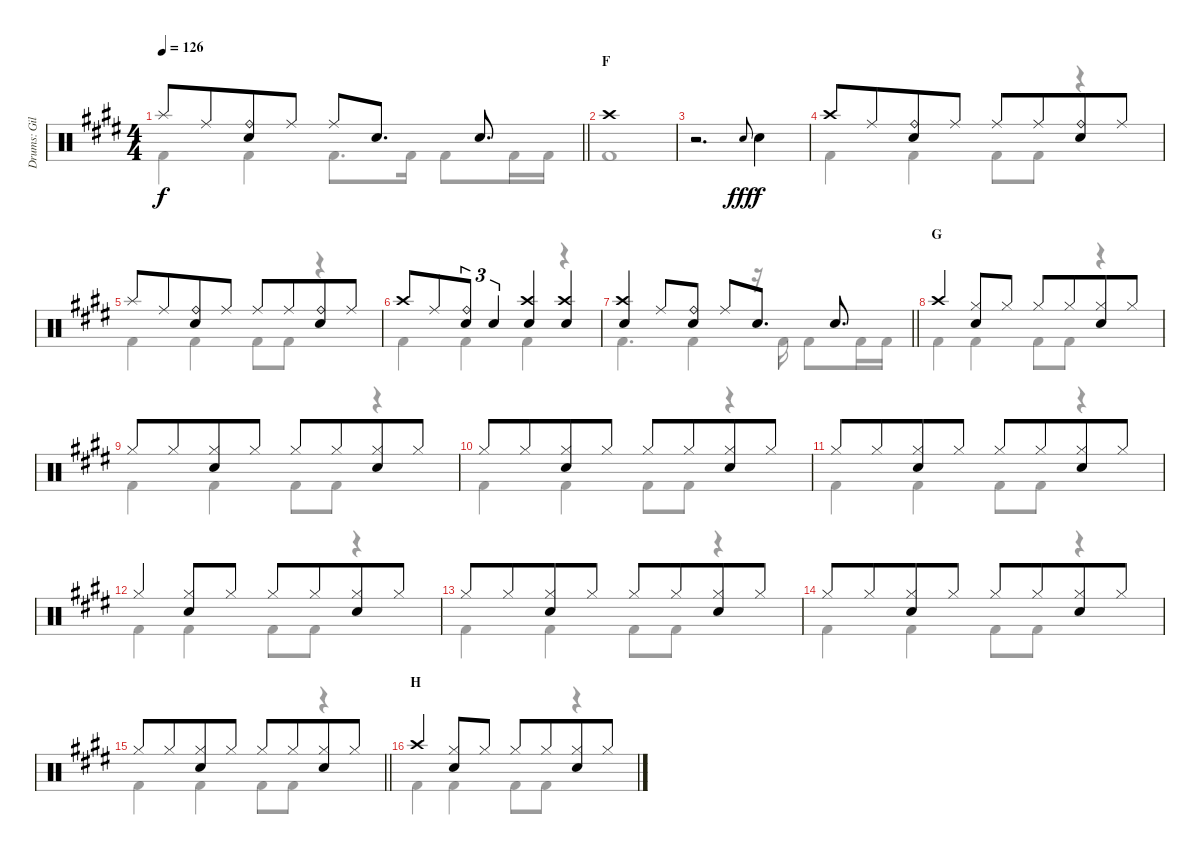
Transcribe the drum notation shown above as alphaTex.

\track ("Drums: Gil" "Drums: Gil") {instrument percussion}
\staff {score}
\articulation defaults
\voice
\ts (4 4)
\tempo 126
\clef neutral
\barLineRight lightlight
\ks e "Splash (hit)".8{dy f} "Ride (middle)".8{beam merge}
("Ride (bell)" "Snare (hit) 2").8 "Ride (middle)".8 "Ride (middle)".8 "Snare (hit) 2".8{d} "Snare (hit) 2".8{d} |
\section ("" "F")
"Crash high (hit)".1 |
r.2{d} "Electric Snare (hit)".8{gr onbeat dy fff} "Snare (hit) 2".4{dy f} |
"Crash high (hit)".8 "Ride (middle)".8{beam merge} ("Ride (bell)" "Snare (hit) 2").8 "Ride (middle)".8 "Ride (middle)".8 "Ride (middle)".8{beam merge} ("Ride (bell)" "Snare (hit) 2").8 "Ride (middle)".8 |
"Splash (hit)".8 "Ride (middle)".8{beam merge} ("Ride (bell)" "Snare (hit) 2").8 "Ride (middle)".8 "Ride (middle)".8 "Ride (middle)".8{beam merge} ("Ride (bell)" "Snare (hit) 2").8 "Ride (middle)".8 |
"Crash high (hit)".8 "Ride (middle)".8{beam merge} ("Ride (bell)" "Snare (hit) 2").8{tu (3 2)} "Snare (hit) 2".4{tu (3 2)} ("Crash high (hit)" "Snare (hit) 2").4 ("Crash high (hit)" "Snare (hit) 2").4 |
\barLineRight lightlight
("Crash high (hit)" "Snare (hit) 2").4 "Ride (middle)".8 ("Ride (bell)" "Snare (hit) 2").8 "Ride (middle)".8 "Snare (hit) 2".8{d} "Snare (hit) 2".8{d} |
\section ("" "G")
"Crash high (hit)".4{beam merge} ("Hi-Hat (closed)" "Snare (hit) 2").8 "Hi-Hat (closed)".8 "Hi-Hat (closed)".8 "Hi-Hat (closed)".8{beam merge} ("Hi-Hat (closed)" "Snare (hit) 2").8 "Hi-Hat (closed)".8 |
"Hi-Hat (closed)".8 "Hi-Hat (closed)".8{beam merge} ("Hi-Hat (closed)" "Snare (hit) 2").8 "Hi-Hat (closed)".8 "Hi-Hat (closed)".8 "Hi-Hat (closed)".8{beam merge} ("Hi-Hat (closed)" "Snare (hit) 2").8 "Hi-Hat (closed)".8 |
"Hi-Hat (closed)".8 "Hi-Hat (closed)".8{beam merge} ("Hi-Hat (closed)" "Snare (hit) 2").8 "Hi-Hat (closed)".8 "Hi-Hat (closed)".8 "Hi-Hat (closed)".8{beam merge} ("Hi-Hat (closed)" "Snare (hit) 2").8 "Hi-Hat (closed)".8 |
"Hi-Hat (closed)".8 "Hi-Hat (closed)".8{beam merge} ("Hi-Hat (closed)" "Snare (hit) 2").8 "Hi-Hat (closed)".8 "Hi-Hat (closed)".8 "Hi-Hat (closed)".8{beam merge} ("Hi-Hat (closed)" "Snare (hit) 2").8 "Hi-Hat (closed)".8 |
"Hi-Hat (closed)".4{beam merge} ("Hi-Hat (closed)" "Snare (hit) 2").8 "Hi-Hat (closed)".8 "Hi-Hat (closed)".8 "Hi-Hat (closed)".8{beam merge} ("Hi-Hat (closed)" "Snare (hit) 2").8 "Hi-Hat (closed)".8 |
"Hi-Hat (closed)".8 "Hi-Hat (closed)".8{beam merge} ("Hi-Hat (closed)" "Snare (hit) 2").8 "Hi-Hat (closed)".8 "Hi-Hat (closed)".8 "Hi-Hat (closed)".8{beam merge} ("Hi-Hat (closed)" "Snare (hit) 2").8 "Hi-Hat (closed)".8 |
"Hi-Hat (closed)".8 "Hi-Hat (closed)".8{beam merge} ("Hi-Hat (closed)" "Snare (hit) 2").8 "Hi-Hat (closed)".8 "Hi-Hat (closed)".8 "Hi-Hat (closed)".8{beam merge} ("Hi-Hat (closed)" "Snare (hit) 2").8 "Hi-Hat (closed)".8 |
\barLineRight lightlight "Hi-Hat (closed)".8 "Hi-Hat (closed)".8{beam merge}
("Hi-Hat (closed)" "Snare (hit) 2").8 "Hi-Hat (closed)".8 "Hi-Hat (closed)".8 "Hi-Hat (closed)".8{beam merge} ("Hi-Hat (closed)" "Snare (hit) 2").8 "Hi-Hat (closed)".8 |
\section ("" "H")
"Crash high (hit)".4{beam merge} ("Hi-Hat (closed)" "Snare (hit) 2").8 "Hi-Hat (closed)".8 "Hi-Hat (closed)".8 "Hi-Hat (closed)".8{beam merge} ("Hi-Hat (closed)" "Snare (hit) 2").8 "Hi-Hat (closed)".8
\voice
\clef neutral
\ottava regular
\simile none
\barLineRight lightlight
\ks e "Kick (hit) 2".4{dy f} "Kick (hit) 2".4 "Kick (hit) 2".8{d} "Kick (hit) 2".16 "Kick (hit) 2".8 "Kick (hit) 2".16 "Kick (hit) 2".16
|
"Kick (hit) 2".1 |
|
"Kick (hit) 2".4 "Kick (hit) 2".4 "Kick (hit) 2".8 "Kick (hit) 2".8 r.4 |
"Kick (hit) 2".4 "Kick (hit) 2".4 "Kick (hit) 2".8 "Kick (hit) 2".8 r.4 |
"Kick (hit) 2".4 "Kick (hit) 2".4 "Kick (hit) 2".4 r.4 |
\barLineRight lightlight "Kick (hit) 2".4{d} "Kick (hit) 2".4
r.16 "Kick (hit) 2".16 "Kick (hit) 2".8 "Kick (hit) 2".16 "Kick (hit) 2".16 |
"Kick (hit) 2".4 "Kick (hit) 2".4 "Kick (hit) 2".8 "Kick (hit) 2".8 r.4 |
"Kick (hit) 2".4 "Kick (hit) 2".4 "Kick (hit) 2".8 "Kick (hit) 2".8 r.4 |
"Kick (hit) 2".4 "Kick (hit) 2".4 "Kick (hit) 2".8 "Kick (hit) 2".8 r.4 |
"Kick (hit) 2".4 "Kick (hit) 2".4 "Kick (hit) 2".8 "Kick (hit) 2".8 r.4 |
"Kick (hit) 2".4 "Kick (hit) 2".4 "Kick (hit) 2".8 "Kick (hit) 2".8 r.4 |
"Kick (hit) 2".4 "Kick (hit) 2".4 "Kick (hit) 2".8 "Kick (hit) 2".8 r.4 |
"Kick (hit) 2".4 "Kick (hit) 2".4 "Kick (hit) 2".8 "Kick (hit) 2".8 r.4 |
\barLineRight lightlight "Kick (hit) 2".4 "Kick (hit) 2".4 "Kick (hit) 2".8 "Kick (hit) 2".8
r.4 |
"Kick (hit) 2".4 "Kick (hit) 2".4 "Kick (hit) 2".8 "Kick (hit) 2".8 r.4
